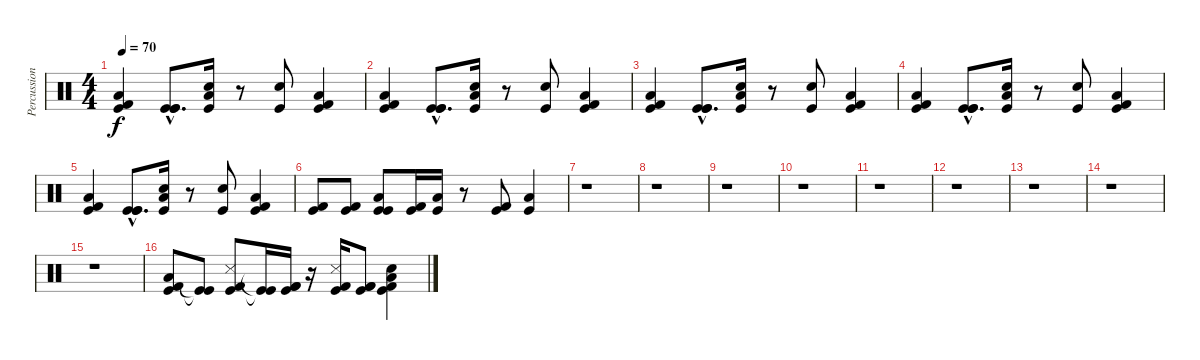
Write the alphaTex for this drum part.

\track ("Percussion" "Percussion") {instrument percussion}
\staff {score}
\articulation defaults
\ts (4 4)
\tempo 70
\clef neutral
\ks c
("Low Floor Tom (hit)" "Kick (hit)" "Kick (hit) 2").4{dy f} ("Kick (hit)"{hac} "Kick (hit)"{hac} "Kick (hit)"{hac}).8{d} ("Snare (hit) 2" "Low Floor Tom (hit)" "Kick (hit)").16 r.8 ("Snare (hit) 2" "Kick (hit)").8 ("Low Floor Tom (hit)" "Kick (hit) 2" "Kick (hit)").4 |
("Low Floor Tom (hit)" "Kick (hit)" "Kick (hit) 2").4 ("Kick (hit)"{hac} "Kick (hit)"{hac} "Kick (hit)"{hac}).8{d} ("Snare (hit) 2" "Low Floor Tom (hit)" "Kick (hit)").16 r.8 ("Snare (hit) 2" "Kick (hit)").8 ("Low Floor Tom (hit)" "Kick (hit) 2" "Kick (hit)").4 |
("Low Floor Tom (hit)" "Kick (hit)" "Kick (hit) 2").4 ("Kick (hit)"{hac} "Kick (hit)"{hac} "Kick (hit)"{hac}).8{d} ("Snare (hit) 2" "Low Floor Tom (hit)" "Kick (hit)").16 r.8 ("Snare (hit) 2" "Kick (hit)").8 ("Low Floor Tom (hit)" "Kick (hit) 2" "Kick (hit)").4 |
("Low Floor Tom (hit)" "Kick (hit)" "Kick (hit) 2").4 ("Kick (hit)"{hac} "Kick (hit)"{hac} "Kick (hit)"{hac}).8{d} ("Snare (hit) 2" "Low Floor Tom (hit)" "Kick (hit)").16 r.8 ("Snare (hit) 2" "Kick (hit)").8 ("Low Floor Tom (hit)" "Kick (hit) 2" "Kick (hit)").4 |
("Low Floor Tom (hit)" "Kick (hit)" "Kick (hit) 2").4 ("Kick (hit)"{hac} "Kick (hit)"{hac} "Kick (hit)"{hac}).8{d} ("Snare (hit) 2" "Low Floor Tom (hit)" "Kick (hit)").16 r.8 ("Snare (hit) 2" "Kick (hit)").8 ("Low Floor Tom (hit)" "Kick (hit) 2" "Kick (hit)").4 |
("Kick (hit)" "Kick (hit) 2").8 ("Kick (hit)" "Kick (hit) 2").8 ("Kick (hit)" "Low Floor Tom (hit)" "Kick (hit)").8 ("Kick (hit) 2" "Kick (hit)").16 ("Low Floor Tom (hit)" "Kick (hit)").16 r.8 ("Kick (hit)" "Kick (hit) 2").8 ("Low Floor Tom (hit)" "Kick (hit)").4 |
r.1 |
r.1 |
r.1 |
r.1 |
r.1 |
r.1 |
r.1 |
r.1 |
r.1 |
("Low Floor Tom (hit)" "Kick (hit)" "Kick (hit) 2").8 ("Kick (hit)"{t} "Kick (hit)"{t}).8 ("Metronome (hit)" "Kick (hit)" "Kick (hit) 2").8 ("Kick (hit)"{t} "Kick (hit)"{t}).16 ("Kick (hit)" "Kick (hit) 2" "Kick (hit) 2").16 r.16 ("Metronome (hit)" "Kick (hit)" "Kick (hit) 2").16 ("Kick (hit)" "Kick (hit) 2" "Kick (hit) 2").8 ("Snare (hit) 2" "Low Floor Tom (hit)" "Kick (hit)" "Kick (hit) 2").4
